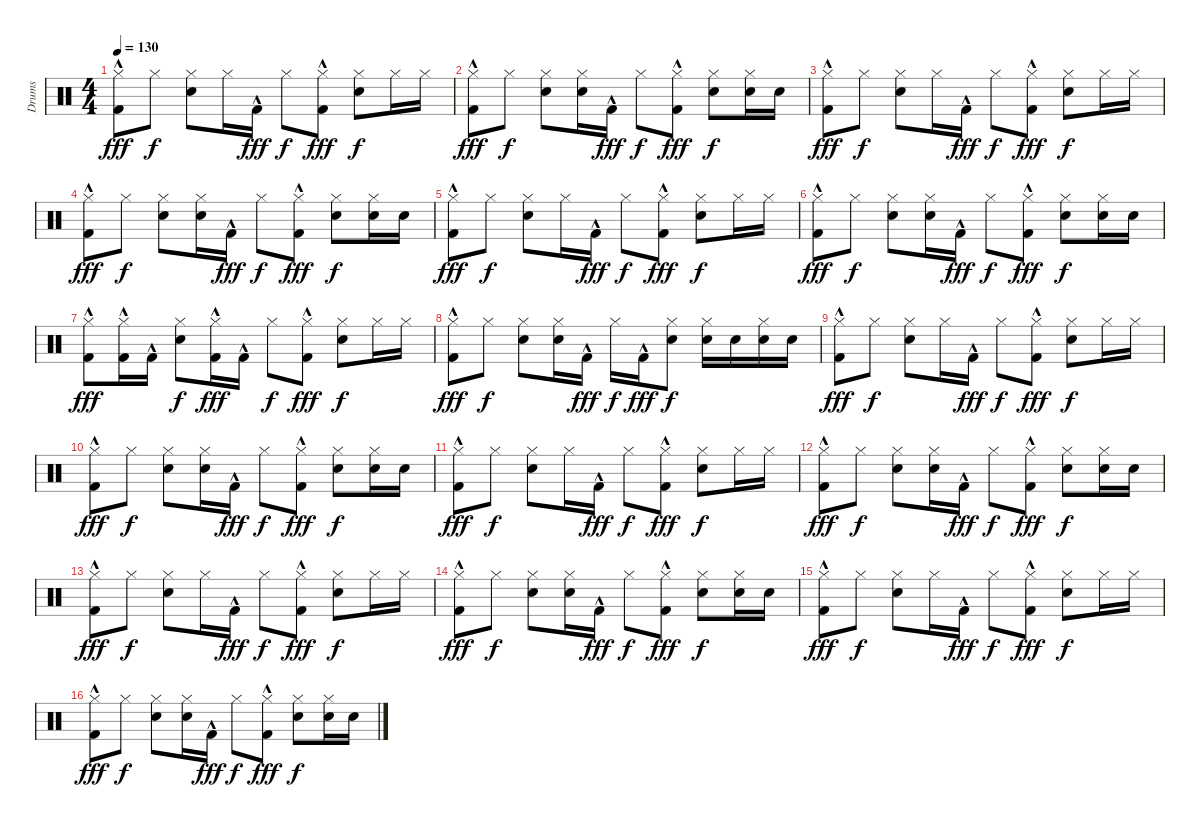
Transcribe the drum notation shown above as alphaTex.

\track ("Drums" "Drums") {instrument percussion}
\staff {score}
\articulation defaults
\ts (4 4)
\tempo 130
\clef neutral
\ks c
("Hi-Hat (closed)" "Kick (hit) 2"{hac}).8{dy fff} "Hi-Hat (closed)".8{dy f} ("Hi-Hat (closed)" "Snare (hit) 2").8 "Hi-Hat (closed)".16 "Kick (hit) 2"{hac}.16{dy fff} "Hi-Hat (closed)".8{dy f} ("Hi-Hat (closed)" "Kick (hit) 2"{hac}).8{dy fff} ("Hi-Hat (closed)" "Snare (hit) 2").8{dy f} "Hi-Hat (closed)".16 "Hi-Hat (closed)".16 |
("Hi-Hat (closed)" "Kick (hit) 2"{hac}).8{dy fff} "Hi-Hat (closed)".8{dy f} ("Hi-Hat (closed)" "Snare (hit) 2").8 ("Hi-Hat (closed)" "Snare (hit) 2").16 "Kick (hit) 2"{hac}.16{dy fff} "Hi-Hat (closed)".8{dy f} ("Hi-Hat (closed)" "Kick (hit) 2"{hac}).8{dy fff} ("Hi-Hat (closed)" "Snare (hit) 2").8{dy f} ("Hi-Hat (closed)" "Snare (hit) 2").16 "Snare (hit) 2".16 |
("Hi-Hat (closed)" "Kick (hit) 2"{hac}).8{dy fff} "Hi-Hat (closed)".8{dy f} ("Hi-Hat (closed)" "Snare (hit) 2").8 "Hi-Hat (closed)".16 "Kick (hit) 2"{hac}.16{dy fff} "Hi-Hat (closed)".8{dy f} ("Hi-Hat (closed)" "Kick (hit) 2"{hac}).8{dy fff} ("Hi-Hat (closed)" "Snare (hit) 2").8{dy f} "Hi-Hat (closed)".16 "Hi-Hat (closed)".16 |
("Hi-Hat (closed)" "Kick (hit) 2"{hac}).8{dy fff} "Hi-Hat (closed)".8{dy f} ("Hi-Hat (closed)" "Snare (hit) 2").8 ("Hi-Hat (closed)" "Snare (hit) 2").16 "Kick (hit) 2"{hac}.16{dy fff} "Hi-Hat (closed)".8{dy f} ("Hi-Hat (closed)" "Kick (hit) 2"{hac}).8{dy fff} ("Hi-Hat (closed)" "Snare (hit) 2").8{dy f} ("Hi-Hat (closed)" "Snare (hit) 2").16 "Snare (hit) 2".16 |
("Hi-Hat (closed)" "Kick (hit) 2"{hac}).8{dy fff} "Hi-Hat (closed)".8{dy f} ("Hi-Hat (closed)" "Snare (hit) 2").8 "Hi-Hat (closed)".16 "Kick (hit) 2"{hac}.16{dy fff} "Hi-Hat (closed)".8{dy f} ("Hi-Hat (closed)" "Kick (hit) 2"{hac}).8{dy fff} ("Hi-Hat (closed)" "Snare (hit) 2").8{dy f} "Hi-Hat (closed)".16 "Hi-Hat (closed)".16 |
("Hi-Hat (closed)" "Kick (hit) 2"{hac}).8{dy fff} "Hi-Hat (closed)".8{dy f} ("Hi-Hat (closed)" "Snare (hit) 2").8 ("Hi-Hat (closed)" "Snare (hit) 2").16 "Kick (hit) 2"{hac}.16{dy fff} "Hi-Hat (closed)".8{dy f} ("Hi-Hat (closed)" "Kick (hit) 2"{hac}).8{dy fff} ("Hi-Hat (closed)" "Snare (hit) 2").8{dy f} ("Hi-Hat (closed)" "Snare (hit) 2").16 "Snare (hit) 2".16 |
("Hi-Hat (closed)" "Kick (hit) 2"{hac}).8{dy fff} ("Hi-Hat (closed)" "Kick (hit) 2"{hac}).16 "Kick (hit) 2"{hac}.16 ("Hi-Hat (closed)" "Snare (hit) 2").8{dy f} ("Hi-Hat (closed)" "Kick (hit) 2"{hac}).16{dy fff} "Kick (hit) 2"{hac}.16 "Hi-Hat (closed)".8{dy f} ("Hi-Hat (closed)" "Kick (hit) 2"{hac}).8{dy fff} ("Hi-Hat (closed)" "Snare (hit) 2").8{dy f} "Hi-Hat (closed)".16 "Hi-Hat (closed)".16 |
("Hi-Hat (closed)" "Kick (hit) 2"{hac}).8{dy fff} "Hi-Hat (closed)".8{dy f} ("Hi-Hat (closed)" "Snare (hit) 2").8 ("Hi-Hat (closed)" "Snare (hit) 2").16 "Kick (hit) 2"{hac}.16{dy fff} "Hi-Hat (closed)".16{dy f} "Kick (hit) 2"{hac}.16{dy fff} ("Hi-Hat (closed)" "Snare (hit) 2").8{dy f} ("Hi-Hat (closed)" "Snare (hit) 2").16 "Snare (hit) 2".16 ("Hi-Hat (closed)" "Snare (hit) 2").16 "Snare (hit) 2".16 |
("Hi-Hat (closed)" "Kick (hit) 2"{hac}).8{dy fff} "Hi-Hat (closed)".8{dy f} ("Hi-Hat (closed)" "Snare (hit) 2").8 "Hi-Hat (closed)".16 "Kick (hit) 2"{hac}.16{dy fff} "Hi-Hat (closed)".8{dy f} ("Hi-Hat (closed)" "Kick (hit) 2"{hac}).8{dy fff} ("Hi-Hat (closed)" "Snare (hit) 2").8{dy f} "Hi-Hat (closed)".16 "Hi-Hat (closed)".16 |
("Hi-Hat (closed)" "Kick (hit) 2"{hac}).8{dy fff} "Hi-Hat (closed)".8{dy f} ("Hi-Hat (closed)" "Snare (hit) 2").8 ("Hi-Hat (closed)" "Snare (hit) 2").16 "Kick (hit) 2"{hac}.16{dy fff} "Hi-Hat (closed)".8{dy f} ("Hi-Hat (closed)" "Kick (hit) 2"{hac}).8{dy fff} ("Hi-Hat (closed)" "Snare (hit) 2").8{dy f} ("Hi-Hat (closed)" "Snare (hit) 2").16 "Snare (hit) 2".16 |
("Hi-Hat (closed)" "Kick (hit) 2"{hac}).8{dy fff} "Hi-Hat (closed)".8{dy f} ("Hi-Hat (closed)" "Snare (hit) 2").8 "Hi-Hat (closed)".16 "Kick (hit) 2"{hac}.16{dy fff} "Hi-Hat (closed)".8{dy f} ("Hi-Hat (closed)" "Kick (hit) 2"{hac}).8{dy fff} ("Hi-Hat (closed)" "Snare (hit) 2").8{dy f} "Hi-Hat (closed)".16 "Hi-Hat (closed)".16 |
("Hi-Hat (closed)" "Kick (hit) 2"{hac}).8{dy fff} "Hi-Hat (closed)".8{dy f} ("Hi-Hat (closed)" "Snare (hit) 2").8 ("Hi-Hat (closed)" "Snare (hit) 2").16 "Kick (hit) 2"{hac}.16{dy fff} "Hi-Hat (closed)".8{dy f} ("Hi-Hat (closed)" "Kick (hit) 2"{hac}).8{dy fff} ("Hi-Hat (closed)" "Snare (hit) 2").8{dy f} ("Hi-Hat (closed)" "Snare (hit) 2").16 "Snare (hit) 2".16 |
("Hi-Hat (closed)" "Kick (hit) 2"{hac}).8{dy fff} "Hi-Hat (closed)".8{dy f} ("Hi-Hat (closed)" "Snare (hit) 2").8 "Hi-Hat (closed)".16 "Kick (hit) 2"{hac}.16{dy fff} "Hi-Hat (closed)".8{dy f} ("Hi-Hat (closed)" "Kick (hit) 2"{hac}).8{dy fff} ("Hi-Hat (closed)" "Snare (hit) 2").8{dy f} "Hi-Hat (closed)".16 "Hi-Hat (closed)".16 |
("Hi-Hat (closed)" "Kick (hit) 2"{hac}).8{dy fff} "Hi-Hat (closed)".8{dy f} ("Hi-Hat (closed)" "Snare (hit) 2").8 ("Hi-Hat (closed)" "Snare (hit) 2").16 "Kick (hit) 2"{hac}.16{dy fff} "Hi-Hat (closed)".8{dy f} ("Hi-Hat (closed)" "Kick (hit) 2"{hac}).8{dy fff} ("Hi-Hat (closed)" "Snare (hit) 2").8{dy f} ("Hi-Hat (closed)" "Snare (hit) 2").16 "Snare (hit) 2".16 |
("Hi-Hat (closed)" "Kick (hit) 2"{hac}).8{dy fff} "Hi-Hat (closed)".8{dy f} ("Hi-Hat (closed)" "Snare (hit) 2").8 "Hi-Hat (closed)".16 "Kick (hit) 2"{hac}.16{dy fff} "Hi-Hat (closed)".8{dy f} ("Hi-Hat (closed)" "Kick (hit) 2"{hac}).8{dy fff} ("Hi-Hat (closed)" "Snare (hit) 2").8{dy f} "Hi-Hat (closed)".16 "Hi-Hat (closed)".16 |
("Hi-Hat (closed)" "Kick (hit) 2"{hac}).8{dy fff} "Hi-Hat (closed)".8{dy f} ("Hi-Hat (closed)" "Snare (hit) 2").8 ("Hi-Hat (closed)" "Snare (hit) 2").16 "Kick (hit) 2"{hac}.16{dy fff} "Hi-Hat (closed)".8{dy f} ("Hi-Hat (closed)" "Kick (hit) 2"{hac}).8{dy fff} ("Hi-Hat (closed)" "Snare (hit) 2").8{dy f} ("Hi-Hat (closed)" "Snare (hit) 2").16 "Snare (hit) 2".16
